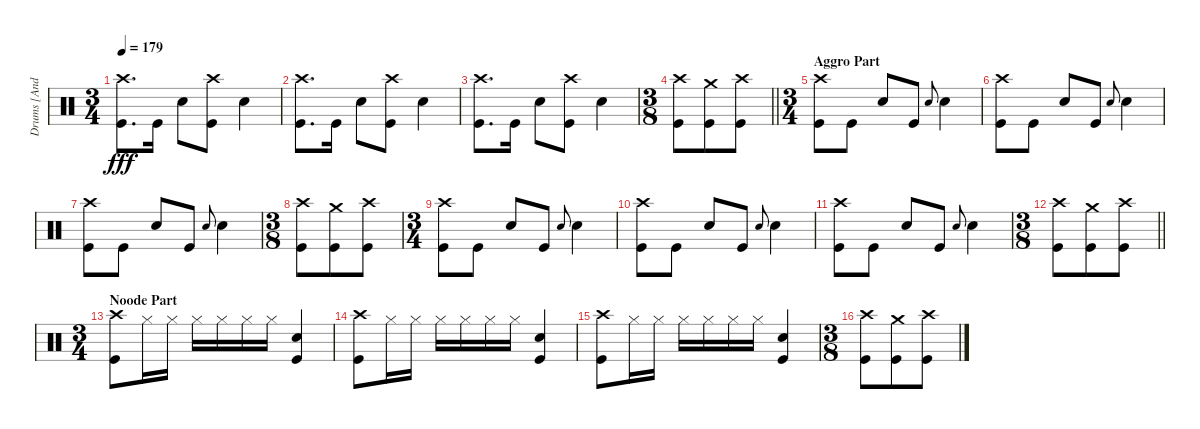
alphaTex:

\track ("Drums [Andrew Forsman]" "Drums [And") {instrument percussion}
\staff {score}
\articulation defaults
\ts (3 4)
\tempo 179
\clef neutral
\ks c
("Crash high (hit)" "Kick (hit)").8{d dy fff} "Kick (hit)".16 "Snare (hit) 2".8 ("Crash high (hit)" "Kick (hit)").8 "Snare (hit) 2".4 |
("Crash high (hit)" "Kick (hit)").8{d} "Kick (hit)".16 "Snare (hit) 2".8 ("Crash high (hit)" "Kick (hit)").8 "Snare (hit) 2".4 |
("Crash high (hit)" "Kick (hit)").8{d} "Kick (hit)".16 "Snare (hit) 2".8 ("Crash high (hit)" "Kick (hit)").8 "Snare (hit) 2".4 |
\ts (3 8)
\barLineRight lightlight
("Crash high (hit)" "Kick (hit)").8 ("Crash medium (hit)" "Kick (hit)").8 ("Crash high (hit)" "Kick (hit)").8 |
\ts (3 4)
\section ("" "Aggro Part")
("Crash high (hit)" "Kick (hit)").8 "Kick (hit)".8 "Snare (hit) 2".8 "Kick (hit)".8 "Snare (hit) 2".8{gr onbeat} "Snare (hit) 2".4 |
("Crash high (hit)" "Kick (hit)").8 "Kick (hit)".8 "Snare (hit) 2".8 "Kick (hit)".8 "Snare (hit) 2".8{gr onbeat} "Snare (hit) 2".4 |
("Crash high (hit)" "Kick (hit)").8 "Kick (hit)".8 "Snare (hit) 2".8 "Kick (hit)".8 "Snare (hit) 2".8{gr onbeat} "Snare (hit) 2".4 |
\ts (3 8)
("Crash high (hit)" "Kick (hit)").8 ("Crash medium (hit)" "Kick (hit)").8 ("Crash high (hit)" "Kick (hit)").8 |
\ts (3 4)
("Crash high (hit)" "Kick (hit)").8 "Kick (hit)".8 "Snare (hit) 2".8 "Kick (hit)".8 "Snare (hit) 2".8{gr onbeat} "Snare (hit) 2".4 |
("Crash high (hit)" "Kick (hit)").8 "Kick (hit)".8 "Snare (hit) 2".8 "Kick (hit)".8 "Snare (hit) 2".8{gr onbeat} "Snare (hit) 2".4 |
("Crash high (hit)" "Kick (hit)").8 "Kick (hit)".8 "Snare (hit) 2".8 "Kick (hit)".8 "Snare (hit) 2".8{gr onbeat} "Snare (hit) 2".4 |
\ts (3 8)
\barLineRight lightlight
("Crash high (hit)" "Kick (hit)").8 ("Crash medium (hit)" "Kick (hit)").8 ("Crash high (hit)" "Kick (hit)").8 |
\ts (3 4)
\section ("" "Noode Part")
("Crash high (hit)" "Kick (hit)").8 "Hi-Hat (closed)".16 "Hi-Hat (closed)".16 "Hi-Hat (closed)".16 "Hi-Hat (closed)".16 "Hi-Hat (closed)".16 "Hi-Hat (closed)".16 ("Snare (hit) 2" "Kick (hit)").4 |
("Crash high (hit)" "Kick (hit)").8 "Hi-Hat (closed)".16 "Hi-Hat (closed)".16 "Hi-Hat (closed)".16 "Hi-Hat (closed)".16 "Hi-Hat (closed)".16 "Hi-Hat (closed)".16 ("Snare (hit) 2" "Kick (hit)").4 |
("Crash high (hit)" "Kick (hit)").8 "Hi-Hat (closed)".16 "Hi-Hat (closed)".16 "Hi-Hat (closed)".16 "Hi-Hat (closed)".16 "Hi-Hat (closed)".16 "Hi-Hat (closed)".16 ("Snare (hit) 2" "Kick (hit)").4 |
\ts (3 8)
("Crash high (hit)" "Kick (hit)").8 ("Crash medium (hit)" "Kick (hit)").8 ("Crash high (hit)" "Kick (hit)").8
